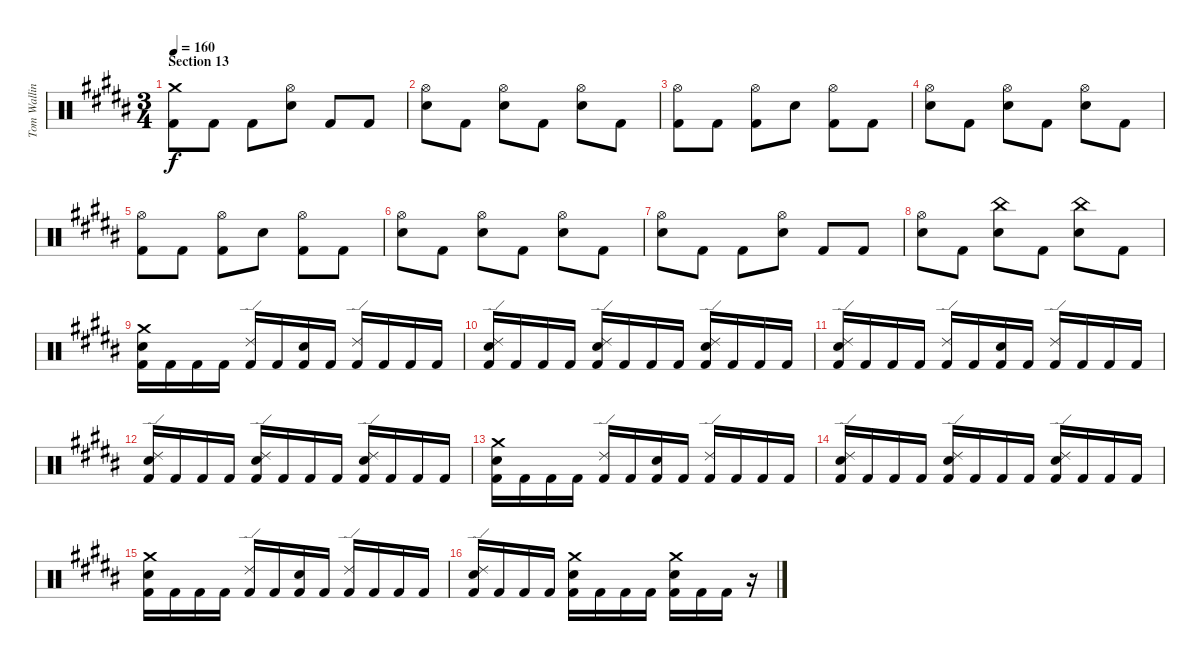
\track ("Tom Walling (drums)" "Tom Wallin") {instrument percussion}
\staff {score}
\articulation defaults
\ts (3 4)
\section ("" "Section 13")
\tempo 160
\clef neutral
\ks g#minor
("Crash medium (hit)" "Kick (hit) 2").8{dy f volume 16 balance 8} "Kick (hit) 2".8 "Kick (hit) 2".8 ("Hi-Hat (open)" "Electric Snare (hit)").8 "Kick (hit) 2".8 "Kick (hit) 2".8 |
("Hi-Hat (open)" "Electric Snare (hit)").8 "Kick (hit) 2".8 ("Hi-Hat (open)" "Electric Snare (hit)").8 "Kick (hit) 2".8 ("Hi-Hat (open)" "Electric Snare (hit)").8 "Kick (hit) 2".8 |
("Kick (hit) 2" "Hi-Hat (open)").8 "Kick (hit) 2".8 ("Kick (hit) 2" "Hi-Hat (open)").8 "Electric Snare (hit)".8 ("Kick (hit) 2" "Hi-Hat (open)").8 "Kick (hit) 2".8 |
("Electric Snare (hit)" "Hi-Hat (open)").8 "Kick (hit) 2".8 ("Electric Snare (hit)" "Hi-Hat (open)").8 "Kick (hit) 2".8 ("Electric Snare (hit)" "Hi-Hat (open)").8 "Kick (hit) 2".8 |
("Kick (hit) 2" "Hi-Hat (open)").8 "Kick (hit) 2".8 ("Kick (hit) 2" "Hi-Hat (open)").8 "Electric Snare (hit)".8 ("Kick (hit) 2" "Hi-Hat (open)").8 "Kick (hit) 2".8 |
("Electric Snare (hit)" "Hi-Hat (open)").8 "Kick (hit) 2".8 ("Electric Snare (hit)" "Hi-Hat (open)").8 "Kick (hit) 2".8 ("Electric Snare (hit)" "Hi-Hat (open)").8 "Kick (hit) 2".8 |
("Electric Snare (hit)" "Hi-Hat (open)").8 "Kick (hit) 2".8 "Kick (hit) 2".8 ("Hi-Hat (open)" "Electric Snare (hit)").8 "Kick (hit) 2".8 "Kick (hit) 2".8 |
("Hi-Hat (open)" "Electric Snare (hit)").8 "Kick (hit) 2".8 ("China (hit)" "Electric Snare (hit)").8 "Kick (hit) 2".8 ("China (hit)" "Electric Snare (hit)").8 "Kick (hit) 2".8 |
("Crash medium (hit)" "Electric Snare (hit)" "Kick (hit) 2").16 "Kick (hit) 2".16 "Kick (hit) 2".16 "Kick (hit) 2".16 ("Ride (edge) 2" "Kick (hit) 2").16 "Kick (hit) 2".16 ("Electric Snare (hit)" "Kick (hit) 2").16 "Kick (hit) 2".16 ("Ride (edge) 2" "Kick (hit) 2").16 "Kick (hit) 2".16 "Kick (hit) 2".16 "Kick (hit) 2".16 |
("Ride (edge) 2" "Electric Snare (hit)" "Kick (hit) 2").16 "Kick (hit) 2".16 "Kick (hit) 2".16 "Kick (hit) 2".16 ("Ride (edge) 2" "Electric Snare (hit)" "Kick (hit) 2").16 "Kick (hit) 2".16 "Kick (hit) 2".16 "Kick (hit) 2".16 ("Ride (edge) 2" "Electric Snare (hit)" "Kick (hit) 2").16 "Kick (hit) 2".16 "Kick (hit) 2".16 "Kick (hit) 2".16 |
("Ride (edge) 2" "Electric Snare (hit)" "Kick (hit) 2").16 "Kick (hit) 2".16 "Kick (hit) 2".16 "Kick (hit) 2".16 ("Ride (edge) 2" "Kick (hit) 2").16 "Kick (hit) 2".16 ("Electric Snare (hit)" "Kick (hit) 2").16 "Kick (hit) 2".16 ("Ride (edge) 2" "Kick (hit) 2").16 "Kick (hit) 2".16 "Kick (hit) 2".16 "Kick (hit) 2".16 |
("Ride (edge) 2" "Electric Snare (hit)" "Kick (hit) 2").16 "Kick (hit) 2".16 "Kick (hit) 2".16 "Kick (hit) 2".16 ("Ride (edge) 2" "Electric Snare (hit)" "Kick (hit) 2").16 "Kick (hit) 2".16 "Kick (hit) 2".16 "Kick (hit) 2".16 ("Ride (edge) 2" "Electric Snare (hit)" "Kick (hit) 2").16 "Kick (hit) 2".16 "Kick (hit) 2".16 "Kick (hit) 2".16 |
("Crash medium (hit)" "Electric Snare (hit)" "Kick (hit) 2").16 "Kick (hit) 2".16 "Kick (hit) 2".16 "Kick (hit) 2".16 ("Ride (edge) 2" "Kick (hit) 2").16 "Kick (hit) 2".16 ("Electric Snare (hit)" "Kick (hit) 2").16 "Kick (hit) 2".16 ("Ride (edge) 2" "Kick (hit) 2").16 "Kick (hit) 2".16 "Kick (hit) 2".16 "Kick (hit) 2".16 |
("Ride (edge) 2" "Electric Snare (hit)" "Kick (hit) 2").16 "Kick (hit) 2".16 "Kick (hit) 2".16 "Kick (hit) 2".16 ("Ride (edge) 2" "Electric Snare (hit)" "Kick (hit) 2").16 "Kick (hit) 2".16 "Kick (hit) 2".16 "Kick (hit) 2".16 ("Ride (edge) 2" "Electric Snare (hit)" "Kick (hit) 2").16 "Kick (hit) 2".16 "Kick (hit) 2".16 "Kick (hit) 2".16 |
("Crash medium (hit)" "Electric Snare (hit)" "Kick (hit) 2").16 "Kick (hit) 2".16 "Kick (hit) 2".16 "Kick (hit) 2".16 ("Ride (edge) 2" "Kick (hit) 2").16 "Kick (hit) 2".16 ("Electric Snare (hit)" "Kick (hit) 2").16 "Kick (hit) 2".16 ("Ride (edge) 2" "Kick (hit) 2").16 "Kick (hit) 2".16 "Kick (hit) 2".16 "Kick (hit) 2".16 |
("Ride (edge) 2" "Electric Snare (hit)" "Kick (hit) 2").16 "Kick (hit) 2".16 "Kick (hit) 2".16 "Kick (hit) 2".16 ("Crash medium (hit)" "Electric Snare (hit)" "Kick (hit) 2").16 "Kick (hit) 2".16 "Kick (hit) 2".16 "Kick (hit) 2".16 ("Crash medium (hit)" "Electric Snare (hit)" "Kick (hit) 2").16 "Kick (hit) 2".16 "Kick (hit) 2".16 r.16
